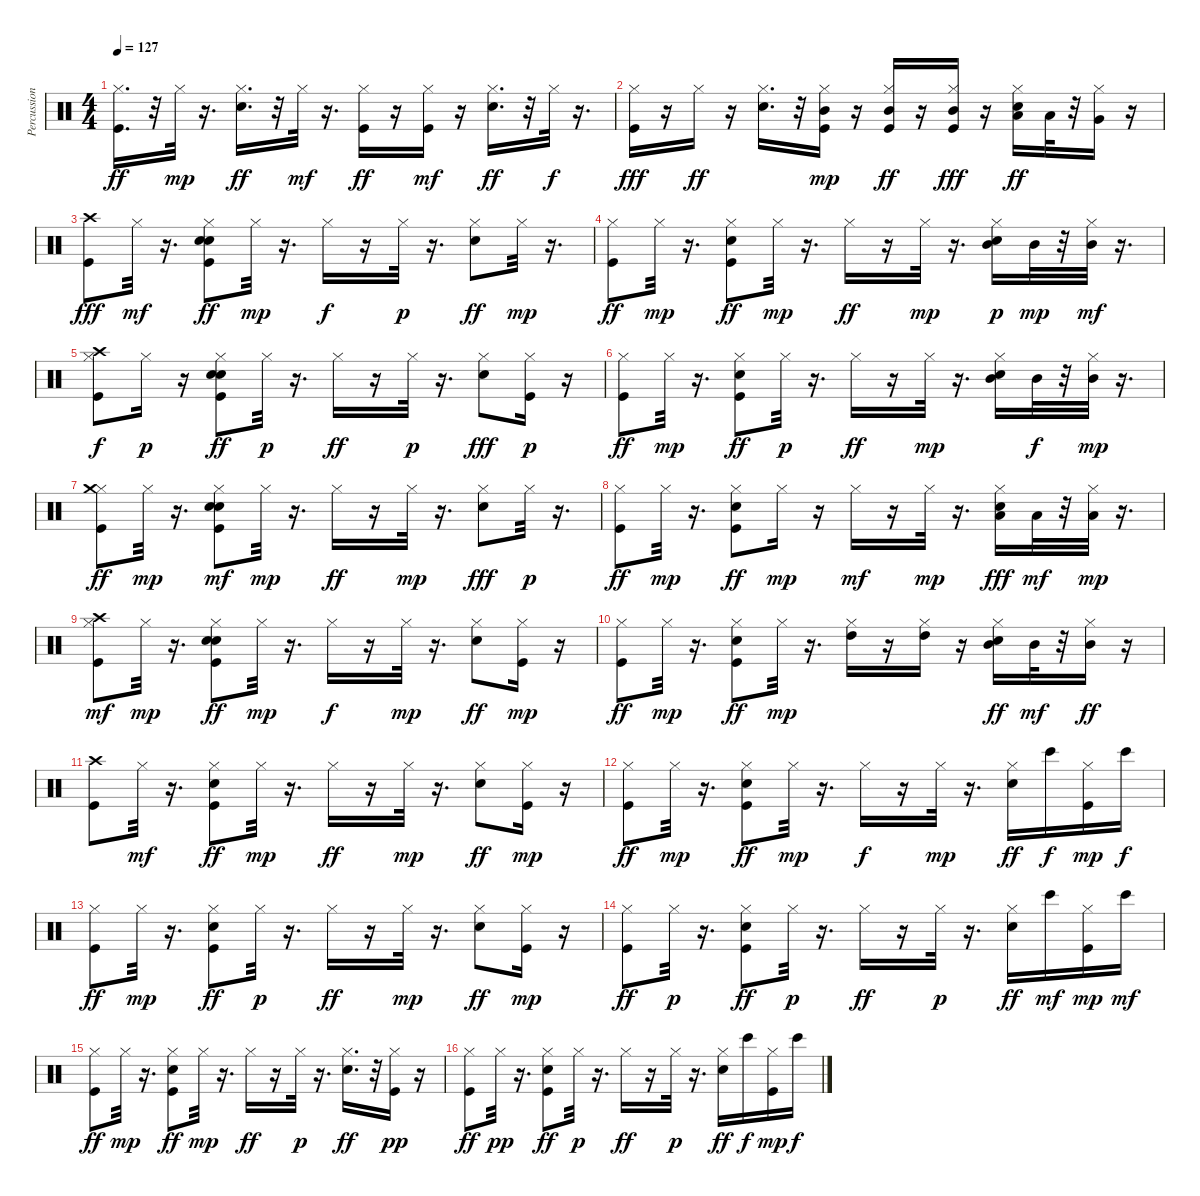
\track ("Percussions (drums + hihats)" "Percussion") {instrument percussion}
\staff {score}
\articulation defaults
\ts (4 4)
\tempo 127
\clef neutral
\ks c
("Kick (hit)" "Hi-Hat (closed)").16{d dy ff} r.32 "Hi-Hat (closed)".32{dy mp} r.16{d} ("Snare (hit) 2" "Hi-Hat (closed)").16{d dy ff} r.32 "Hi-Hat (closed)".32{dy mf} r.16{d} ("Kick (hit)" "Hi-Hat (closed)").16{dy ff} r.16 ("Kick (hit)" "Hi-Hat (closed)").16{dy mf} r.16 ("Snare (hit) 2" "Hi-Hat (closed)").16{d dy ff} r.32 "Hi-Hat (closed)".32{dy f} r.16{d} |
("Kick (hit)" "Hi-Hat (closed)").16{dy fff} r.16 "Hi-Hat (closed)".16{dy ff} r.16 ("Snare (hit) 2" "Hi-Hat (closed)").16{d} r.32 ("Kick (hit)" "Hi-Hat (closed)" "Mid Tom (hit)").16{dy mp} r.16 ("Kick (hit)" "Hi-Hat (closed)" "Mid Tom (hit)").16{dy ff} r.16 ("Kick (hit)" "Hi-Hat (closed)" "Mid Tom (hit)").16{dy fff} r.16 ("Snare (hit) 2" "Hi-Hat (closed)" "Low Tom (hit)").16{dy ff} "Low Tom (hit)".32 r.32 ("Hi-Hat (closed)" "Very Low Tom (hit)").16 r.16 |
("Kick (hit)" "Crash high (hit)").8{dy fff} "Hi-Hat (closed)".32{dy mf} r.16{d} ("Kick (hit)" "Snare (hit) 2" "Electric Snare (hit)" "Hi-Hat (closed)").8{dy ff} "Hi-Hat (closed)".32{dy mp} r.16{d} "Hi-Hat (closed)".16{dy f} r.16 "Hi-Hat (closed)".32{dy p} r.16{d} ("Snare (hit) 2" "Hi-Hat (closed)").8{dy ff} "Hi-Hat (closed)".32{dy mp} r.16{d} |
("Kick (hit)" "Hi-Hat (closed)").8{dy ff} "Hi-Hat (closed)".32{dy mp} r.16{d} ("Kick (hit)" "Snare (hit) 2" "Hi-Hat (closed)").8{dy ff} "Hi-Hat (closed)".32{dy mp} r.16{d} "Hi-Hat (closed)".16{dy ff} r.16 "Hi-Hat (closed)".32{dy mp} r.16{d} ("Snare (hit) 2" "Hi-Hat (closed)" "Mid Tom (hit)").16{dy p} "Mid Tom (hit)".32{dy mp} r.32 ("Hi-Hat (closed)" "Mid Tom (hit)").32{dy mf} r.16{d} |
("Kick (hit)" "Hi-Hat (closed)" "Crash high (hit)").8{dy f} "Hi-Hat (closed)".16{dy p} r.16 ("Kick (hit)" "Snare (hit) 2" "Electric Snare (hit)" "Hi-Hat (closed)").8{dy ff} "Hi-Hat (closed)".32{dy p} r.16{d} "Hi-Hat (closed)".16{dy ff} r.16 "Hi-Hat (closed)".32{dy p} r.16{d} ("Snare (hit) 2" "Hi-Hat (closed)").8{dy fff} ("Kick (hit)" "Hi-Hat (closed)").16{dy p} r.16 |
("Kick (hit)" "Hi-Hat (closed)").8{dy ff} "Hi-Hat (closed)".32{dy mp} r.16{d} ("Kick (hit)" "Snare (hit) 2" "Hi-Hat (closed)").8{dy ff} "Hi-Hat (closed)".32{dy p} r.16{d} "Hi-Hat (closed)".16{dy ff} r.16 "Hi-Hat (closed)".32{dy mp} r.16{d} ("Snare (hit) 2" "Hi-Hat (closed)" "Mid Tom (hit)").16 "Mid Tom (hit)".32{dy f} r.32 ("Hi-Hat (closed)" "Mid Tom (hit)").32{dy mp} r.16{d} |
("Kick (hit)" "Hi-Hat (closed)" "Crash medium (hit)").8{dy ff} "Hi-Hat (closed)".32{dy mp} r.16{d} ("Kick (hit)" "Snare (hit) 2" "Electric Snare (hit)" "Hi-Hat (closed)").8{dy mf} "Hi-Hat (closed)".32{dy mp} r.16{d} "Hi-Hat (closed)".16{dy ff} r.16 "Hi-Hat (closed)".32{dy mp} r.16{d} ("Snare (hit) 2" "Hi-Hat (closed)").8{dy fff} "Hi-Hat (closed)".32{dy p} r.16{d} |
("Kick (hit)" "Hi-Hat (closed)").8{dy ff} "Hi-Hat (closed)".32{dy mp} r.16{d} ("Kick (hit)" "Snare (hit) 2" "Hi-Hat (closed)").8{dy ff} "Hi-Hat (closed)".16{dy mp} r.16 "Hi-Hat (closed)".16{dy mf} r.16 "Hi-Hat (closed)".32{dy mp} r.16{d} ("Snare (hit) 2" "Hi-Hat (closed)" "Low Tom (hit)").16{dy fff} "Low Tom (hit)".32{dy mf} r.32 ("Hi-Hat (closed)" "Low Tom (hit)").32{dy mp} r.16{d} |
("Kick (hit)" "Hi-Hat (closed)" "Crash high (hit)").8{dy mf} "Hi-Hat (closed)".32{dy mp} r.16{d} ("Kick (hit)" "Snare (hit) 2" "Electric Snare (hit)" "Hi-Hat (closed)").8{dy ff} "Hi-Hat (closed)".32{dy mp} r.16{d} "Hi-Hat (closed)".16{dy f} r.16 "Hi-Hat (closed)".32{dy mp} r.16{d} ("Snare (hit) 2" "Hi-Hat (closed)").8{dy ff} ("Kick (hit)" "Hi-Hat (closed)").16{dy mp} r.16 |
("Kick (hit)" "Hi-Hat (closed)").8{dy ff} "Hi-Hat (closed)".32{dy mp} r.16{d} ("Kick (hit)" "Snare (hit) 2" "Hi-Hat (closed)").8{dy ff} "Hi-Hat (closed)".32{dy mp} r.16{d} ("Hi-Hat (closed)" "High Tom (hit)").16 r.16 ("Hi-Hat (closed)" "High Tom (hit)").16 r.16 ("Snare (hit) 2" "Hi-Hat (closed)" "Mid Tom (hit)").16{dy ff} "Mid Tom (hit)".32{dy mf} r.32 ("Hi-Hat (closed)" "Mid Tom (hit)").16{dy ff} r.16 |
("Kick (hit)" "Crash high (hit)").8 "Hi-Hat (closed)".32{dy mf} r.16{d} ("Kick (hit)" "Snare (hit) 2" "Hi-Hat (closed)").8{dy ff} "Hi-Hat (closed)".32{dy mp} r.16{d} "Hi-Hat (closed)".16{dy ff} r.16 "Hi-Hat (closed)".32{dy mp} r.16{d} ("Snare (hit) 2" "Hi-Hat (closed)").8{dy ff} ("Kick (hit)" "Hi-Hat (closed)").16{dy mp} r.16 |
("Kick (hit)" "Hi-Hat (closed)").8{dy ff} "Hi-Hat (closed)".32{dy mp} r.16{d} ("Kick (hit)" "Snare (hit) 2" "Hi-Hat (closed)").8{dy ff} "Hi-Hat (closed)".32{dy mp} r.16{d} "Hi-Hat (closed)".16{dy f} r.16 "Hi-Hat (closed)".32{dy mp} r.16{d} ("Snare (hit) 2" "Hi-Hat (closed)").16{dy ff} "Bongo High (hit)".16{dy f} ("Kick (hit)" "Hi-Hat (closed)").16{dy mp} "Bongo High (hit)".16{dy f} |
("Kick (hit)" "Hi-Hat (closed)").8{dy ff} "Hi-Hat (closed)".32{dy mp} r.16{d} ("Kick (hit)" "Snare (hit) 2" "Hi-Hat (closed)").8{dy ff} "Hi-Hat (closed)".32{dy p} r.16{d} "Hi-Hat (closed)".16{dy ff} r.16 "Hi-Hat (closed)".32{dy mp} r.16{d} ("Snare (hit) 2" "Hi-Hat (closed)").8{dy ff} ("Kick (hit)" "Hi-Hat (closed)").16{dy mp} r.16 |
("Kick (hit)" "Hi-Hat (closed)").8{dy ff} "Hi-Hat (closed)".32{dy p} r.16{d} ("Kick (hit)" "Snare (hit) 2" "Hi-Hat (closed)").8{dy ff} "Hi-Hat (closed)".32{dy p} r.16{d} "Hi-Hat (closed)".16{dy ff} r.16 "Hi-Hat (closed)".32{dy p} r.16{d} ("Snare (hit) 2" "Hi-Hat (closed)").16{dy ff} "Bongo High (hit)".16{dy mf} ("Kick (hit)" "Hi-Hat (closed)").16{dy mp} "Bongo High (hit)".16{dy mf} |
("Kick (hit)" "Hi-Hat (closed)").8{dy ff} "Hi-Hat (closed)".32{dy mp} r.16{d} ("Kick (hit)" "Snare (hit) 2" "Hi-Hat (closed)").8{dy ff} "Hi-Hat (closed)".32{dy mp} r.16{d} "Hi-Hat (closed)".16{dy ff} r.16 "Hi-Hat (closed)".32{dy p} r.16{d} ("Snare (hit) 2" "Hi-Hat (closed)").16{d dy ff} r.32 ("Kick (hit)" "Hi-Hat (closed)").16{dy pp} r.16 |
("Kick (hit)" "Hi-Hat (closed)").8{dy ff} "Hi-Hat (closed)".32{dy pp} r.16{d} ("Kick (hit)" "Snare (hit) 2" "Hi-Hat (closed)").8{dy ff} "Hi-Hat (closed)".32{dy p} r.16{d} "Hi-Hat (closed)".16{dy ff} r.16 "Hi-Hat (closed)".32{dy p} r.16{d} ("Snare (hit) 2" "Hi-Hat (closed)").16{dy ff} "Bongo High (hit)".16{dy f} ("Kick (hit)" "Hi-Hat (closed)").16{dy mp} "Bongo High (hit)".16{dy f}
